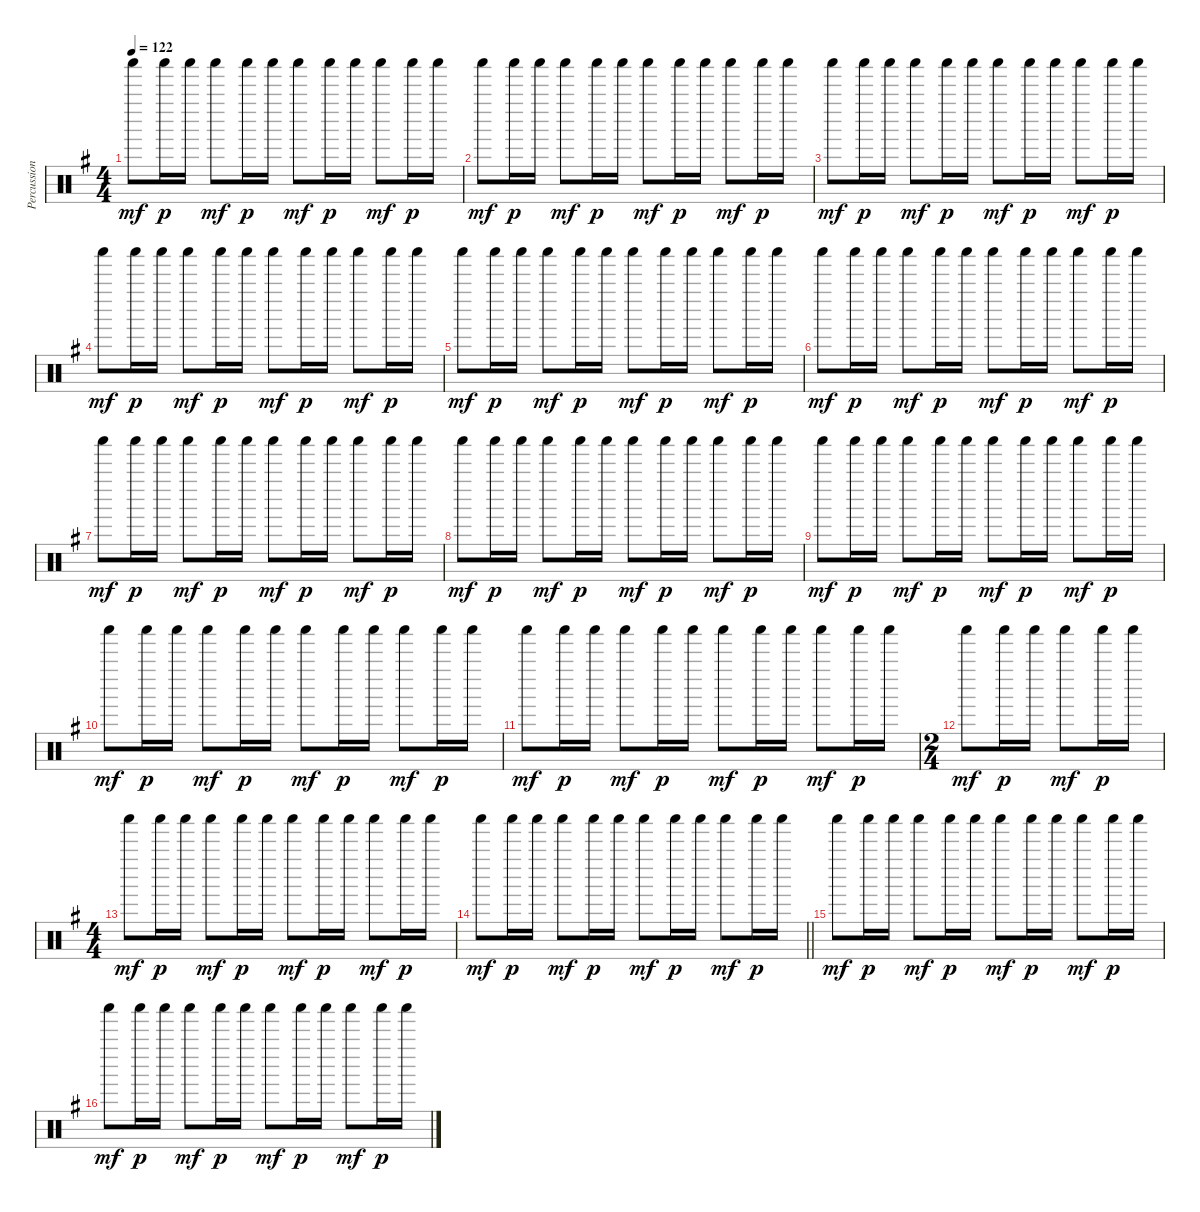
\track ("Percussion" "Percussion") {instrument percussion}
\staff {score}
\articulation defaults
\ts (4 4)
\tempo 122
\clef neutral
\ks g "Shaker (hit)".8{dy mf} "Shaker (hit)".16{dy p} "Shaker (hit)".16 "Shaker (hit)".8{dy mf} "Shaker (hit)".16{dy p} "Shaker (hit)".16 "Shaker (hit)".8{dy mf} "Shaker (hit)".16{dy p} "Shaker (hit)".16 "Shaker (hit)".8{dy mf} "Shaker (hit)".16{dy p} "Shaker (hit)".16
|
"Shaker (hit)".8{dy mf} "Shaker (hit)".16{dy p} "Shaker (hit)".16 "Shaker (hit)".8{dy mf} "Shaker (hit)".16{dy p} "Shaker (hit)".16 "Shaker (hit)".8{dy mf} "Shaker (hit)".16{dy p} "Shaker (hit)".16 "Shaker (hit)".8{dy mf} "Shaker (hit)".16{dy p} "Shaker (hit)".16 |
"Shaker (hit)".8{dy mf} "Shaker (hit)".16{dy p} "Shaker (hit)".16 "Shaker (hit)".8{dy mf} "Shaker (hit)".16{dy p} "Shaker (hit)".16 "Shaker (hit)".8{dy mf} "Shaker (hit)".16{dy p} "Shaker (hit)".16 "Shaker (hit)".8{dy mf} "Shaker (hit)".16{dy p} "Shaker (hit)".16 |
"Shaker (hit)".8{dy mf} "Shaker (hit)".16{dy p} "Shaker (hit)".16 "Shaker (hit)".8{dy mf} "Shaker (hit)".16{dy p} "Shaker (hit)".16 "Shaker (hit)".8{dy mf} "Shaker (hit)".16{dy p} "Shaker (hit)".16 "Shaker (hit)".8{dy mf} "Shaker (hit)".16{dy p} "Shaker (hit)".16 |
"Shaker (hit)".8{dy mf} "Shaker (hit)".16{dy p} "Shaker (hit)".16 "Shaker (hit)".8{dy mf} "Shaker (hit)".16{dy p} "Shaker (hit)".16 "Shaker (hit)".8{dy mf} "Shaker (hit)".16{dy p} "Shaker (hit)".16 "Shaker (hit)".8{dy mf} "Shaker (hit)".16{dy p} "Shaker (hit)".16 |
"Shaker (hit)".8{dy mf} "Shaker (hit)".16{dy p} "Shaker (hit)".16 "Shaker (hit)".8{dy mf} "Shaker (hit)".16{dy p} "Shaker (hit)".16 "Shaker (hit)".8{dy mf} "Shaker (hit)".16{dy p} "Shaker (hit)".16 "Shaker (hit)".8{dy mf} "Shaker (hit)".16{dy p} "Shaker (hit)".16 |
"Shaker (hit)".8{dy mf} "Shaker (hit)".16{dy p} "Shaker (hit)".16 "Shaker (hit)".8{dy mf} "Shaker (hit)".16{dy p} "Shaker (hit)".16 "Shaker (hit)".8{dy mf} "Shaker (hit)".16{dy p} "Shaker (hit)".16 "Shaker (hit)".8{dy mf} "Shaker (hit)".16{dy p} "Shaker (hit)".16 |
"Shaker (hit)".8{dy mf} "Shaker (hit)".16{dy p} "Shaker (hit)".16 "Shaker (hit)".8{dy mf} "Shaker (hit)".16{dy p} "Shaker (hit)".16 "Shaker (hit)".8{dy mf} "Shaker (hit)".16{dy p} "Shaker (hit)".16 "Shaker (hit)".8{dy mf} "Shaker (hit)".16{dy p} "Shaker (hit)".16 |
"Shaker (hit)".8{dy mf} "Shaker (hit)".16{dy p} "Shaker (hit)".16 "Shaker (hit)".8{dy mf} "Shaker (hit)".16{dy p} "Shaker (hit)".16 "Shaker (hit)".8{dy mf} "Shaker (hit)".16{dy p} "Shaker (hit)".16 "Shaker (hit)".8{dy mf} "Shaker (hit)".16{dy p} "Shaker (hit)".16 |
"Shaker (hit)".8{dy mf} "Shaker (hit)".16{dy p} "Shaker (hit)".16 "Shaker (hit)".8{dy mf} "Shaker (hit)".16{dy p} "Shaker (hit)".16 "Shaker (hit)".8{dy mf} "Shaker (hit)".16{dy p} "Shaker (hit)".16 "Shaker (hit)".8{dy mf} "Shaker (hit)".16{dy p} "Shaker (hit)".16 |
"Shaker (hit)".8{dy mf} "Shaker (hit)".16{dy p} "Shaker (hit)".16 "Shaker (hit)".8{dy mf} "Shaker (hit)".16{dy p} "Shaker (hit)".16 "Shaker (hit)".8{dy mf} "Shaker (hit)".16{dy p} "Shaker (hit)".16 "Shaker (hit)".8{dy mf} "Shaker (hit)".16{dy p} "Shaker (hit)".16 |
\ts (2 4)
"Shaker (hit)".8{dy mf} "Shaker (hit)".16{dy p} "Shaker (hit)".16 "Shaker (hit)".8{dy mf} "Shaker (hit)".16{dy p} "Shaker (hit)".16 |
\ts (4 4)
"Shaker (hit)".8{dy mf} "Shaker (hit)".16{dy p} "Shaker (hit)".16 "Shaker (hit)".8{dy mf} "Shaker (hit)".16{dy p} "Shaker (hit)".16 "Shaker (hit)".8{dy mf} "Shaker (hit)".16{dy p} "Shaker (hit)".16 "Shaker (hit)".8{dy mf} "Shaker (hit)".16{dy p} "Shaker (hit)".16 |
\barLineRight lightlight "Shaker (hit)".8{dy mf} "Shaker (hit)".16{dy p} "Shaker (hit)".16 "Shaker (hit)".8{dy mf} "Shaker (hit)".16{dy p} "Shaker (hit)".16 "Shaker (hit)".8{dy mf} "Shaker (hit)".16{dy p} "Shaker (hit)".16 "Shaker (hit)".8{dy mf} "Shaker (hit)".16{dy p} "Shaker (hit)".16
|
"Shaker (hit)".8{dy mf} "Shaker (hit)".16{dy p} "Shaker (hit)".16 "Shaker (hit)".8{dy mf} "Shaker (hit)".16{dy p} "Shaker (hit)".16 "Shaker (hit)".8{dy mf} "Shaker (hit)".16{dy p} "Shaker (hit)".16 "Shaker (hit)".8{dy mf} "Shaker (hit)".16{dy p} "Shaker (hit)".16 |
"Shaker (hit)".8{dy mf} "Shaker (hit)".16{dy p} "Shaker (hit)".16 "Shaker (hit)".8{dy mf} "Shaker (hit)".16{dy p} "Shaker (hit)".16 "Shaker (hit)".8{dy mf} "Shaker (hit)".16{dy p} "Shaker (hit)".16 "Shaker (hit)".8{dy mf} "Shaker (hit)".16{dy p} "Shaker (hit)".16
